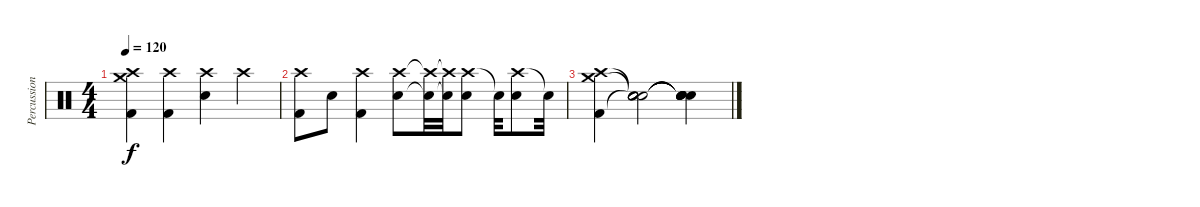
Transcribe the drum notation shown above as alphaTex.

\track ("Percussioni" "Percussion") {instrument percussion}
\staff {score}
\articulation defaults
\ts (4 4)
\tempo 120
\clef neutral
\ks c
("Crash high (hit)" "Kick (hit) 2" "Crash medium (hit)").4{dy f} ("Crash high (hit)" "Kick (hit) 2").4 ("Crash high (hit)" "Snare (hit) 2").4 "Crash high (hit)".4 |
("Crash high (hit)" "Kick (hit) 2").8 "Snare (hit) 2".8 ("Crash high (hit)" "Kick (hit) 2").4 ("Crash high (hit)" "Snare (hit) 2").8 ("Crash high (hit)"{t} "Snare (hit)"{t}).32 ("Crash high (hit)"{t} "Snare (hit) 2"{t}).32 ("Crash high (hit)" "Snare (hit) 2").8 "Snare (hit) 2"{t}.32 ("Crash high (hit)" "Snare (hit) 2").8 "Electric Snare (hit)"{t}.32 |
("Crash high (hit)" "Kick (hit) 2" "Crash medium (hit)").4 ("Snare (hit)"{t} "Snare (hit)"{t} "Snare (hit)"{t} "Snare (hit)" "Snare (hit)").2 ("Snare (hit)"{t} "Snare (hit)"{t} "Snare (hit)"{t} "Snare (hit)"{t} "Snare (hit)"{t}).4
